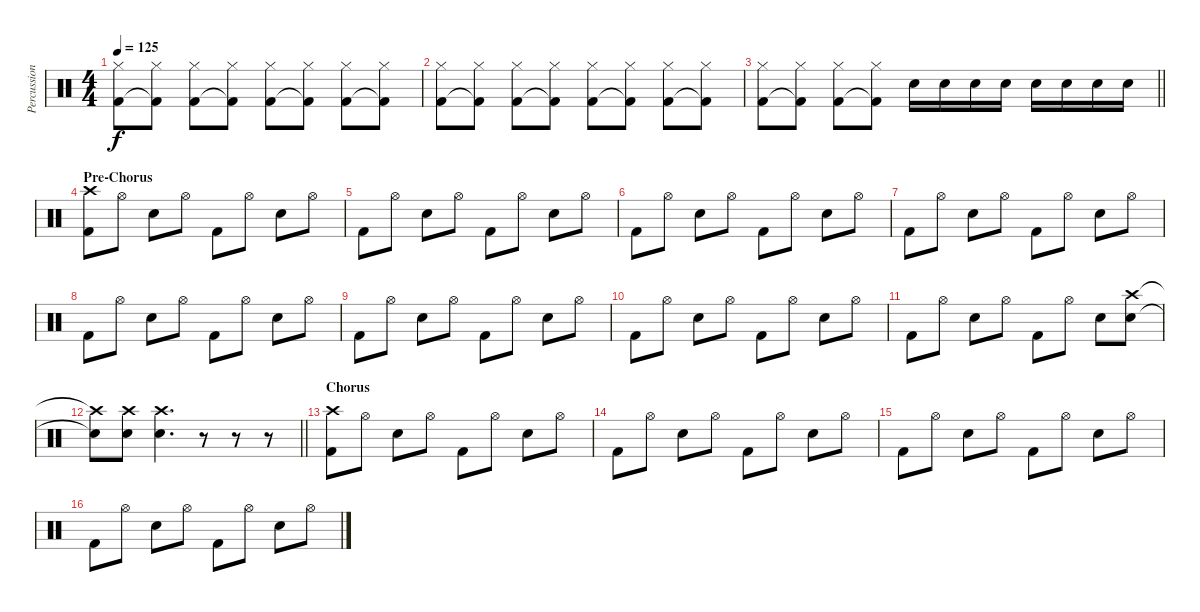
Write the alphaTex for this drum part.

\track ("Percussion" "Percussion") {instrument percussion}
\staff {score}
\articulation defaults
\ts (4 4)
\tempo 125
\clef neutral
\ks c
("Hi-Hat (closed)" "Kick (hit) 2").8{dy f} ("Hi-Hat (closed)" "Kick (hit) 2"{t}).8 ("Hi-Hat (closed)" "Kick (hit) 2").8 ("Hi-Hat (closed)" "Kick (hit) 2"{t}).8 ("Hi-Hat (closed)" "Kick (hit) 2").8 ("Hi-Hat (closed)" "Kick (hit) 2"{t}).8 ("Hi-Hat (closed)" "Kick (hit) 2").8 ("Hi-Hat (closed)" "Kick (hit) 2"{t}).8 |
("Hi-Hat (closed)" "Kick (hit) 2").8 ("Hi-Hat (closed)" "Kick (hit) 2"{t}).8 ("Hi-Hat (closed)" "Kick (hit) 2").8 ("Hi-Hat (closed)" "Kick (hit) 2"{t}).8 ("Hi-Hat (closed)" "Kick (hit) 2").8 ("Hi-Hat (closed)" "Kick (hit) 2"{t}).8 ("Hi-Hat (closed)" "Kick (hit) 2").8 ("Hi-Hat (closed)" "Kick (hit) 2"{t}).8 |
\barLineRight lightlight
("Hi-Hat (closed)" "Kick (hit) 2").8 ("Hi-Hat (closed)" "Kick (hit) 2"{t}).8 ("Hi-Hat (closed)" "Kick (hit) 2").8 ("Hi-Hat (closed)" "Kick (hit) 2"{t}).8 "Snare (hit) 2".16 "Snare (hit) 2".16 "Snare (hit) 2".16 "Snare (hit) 2".16 "Snare (hit) 2".16 "Snare (hit) 2".16 "Snare (hit) 2".16 "Snare (hit) 2".16 |
\section ("" "Pre-Chorus")
("Crash high (hit)" "Kick (hit) 2").8 "Hi-Hat (open)".8 "Snare (hit) 2".8 "Hi-Hat (open)".8 "Kick (hit) 2".8 "Hi-Hat (open)".8 "Snare (hit) 2".8 "Hi-Hat (open)".8 |
"Kick (hit) 2".8 "Hi-Hat (open)".8 "Snare (hit) 2".8 "Hi-Hat (open)".8 "Kick (hit) 2".8 "Hi-Hat (open)".8 "Snare (hit) 2".8 "Hi-Hat (open)".8 |
"Kick (hit) 2".8 "Hi-Hat (open)".8 "Snare (hit) 2".8 "Hi-Hat (open)".8 "Kick (hit) 2".8 "Hi-Hat (open)".8 "Snare (hit) 2".8 "Hi-Hat (open)".8 |
"Kick (hit) 2".8 "Hi-Hat (open)".8 "Snare (hit) 2".8 "Hi-Hat (open)".8 "Kick (hit) 2".8 "Hi-Hat (open)".8 "Snare (hit) 2".8 "Hi-Hat (open)".8 |
"Kick (hit) 2".8 "Hi-Hat (open)".8 "Snare (hit) 2".8 "Hi-Hat (open)".8 "Kick (hit) 2".8 "Hi-Hat (open)".8 "Snare (hit) 2".8 "Hi-Hat (open)".8 |
"Kick (hit) 2".8 "Hi-Hat (open)".8 "Snare (hit) 2".8 "Hi-Hat (open)".8 "Kick (hit) 2".8 "Hi-Hat (open)".8 "Snare (hit) 2".8 "Hi-Hat (open)".8 |
"Kick (hit) 2".8 "Hi-Hat (open)".8 "Snare (hit) 2".8 "Hi-Hat (open)".8 "Kick (hit) 2".8 "Hi-Hat (open)".8 "Snare (hit) 2".8 "Hi-Hat (open)".8 |
"Kick (hit) 2".8 "Hi-Hat (open)".8 "Snare (hit) 2".8 "Hi-Hat (open)".8 "Kick (hit) 2".8 "Hi-Hat (open)".8 "Snare (hit) 2".8 ("Crash high (hit)" "Snare (hit) 2").8 |
\barLineRight lightlight
("Crash high (hit)"{t} "Snare (hit) 2"{t}).8 ("Crash high (hit)" "Snare (hit) 2").8 ("Crash high (hit)" "Snare (hit) 2").4{d} r.8 r.8 r.8 |
\section ("" "Chorus")
("Crash high (hit)" "Kick (hit) 2").8 "Hi-Hat (open)".8 "Snare (hit) 2".8 "Hi-Hat (open)".8 "Kick (hit) 2".8 "Hi-Hat (open)".8 "Snare (hit) 2".8 "Hi-Hat (open)".8 |
"Kick (hit) 2".8 "Hi-Hat (open)".8 "Snare (hit) 2".8 "Hi-Hat (open)".8 "Kick (hit) 2".8 "Hi-Hat (open)".8 "Snare (hit) 2".8 "Hi-Hat (open)".8 |
"Kick (hit) 2".8 "Hi-Hat (open)".8 "Snare (hit) 2".8 "Hi-Hat (open)".8 "Kick (hit) 2".8 "Hi-Hat (open)".8 "Snare (hit) 2".8 "Hi-Hat (open)".8 |
"Kick (hit) 2".8 "Hi-Hat (open)".8 "Snare (hit) 2".8 "Hi-Hat (open)".8 "Kick (hit) 2".8 "Hi-Hat (open)".8 "Snare (hit) 2".8 "Hi-Hat (open)".8
